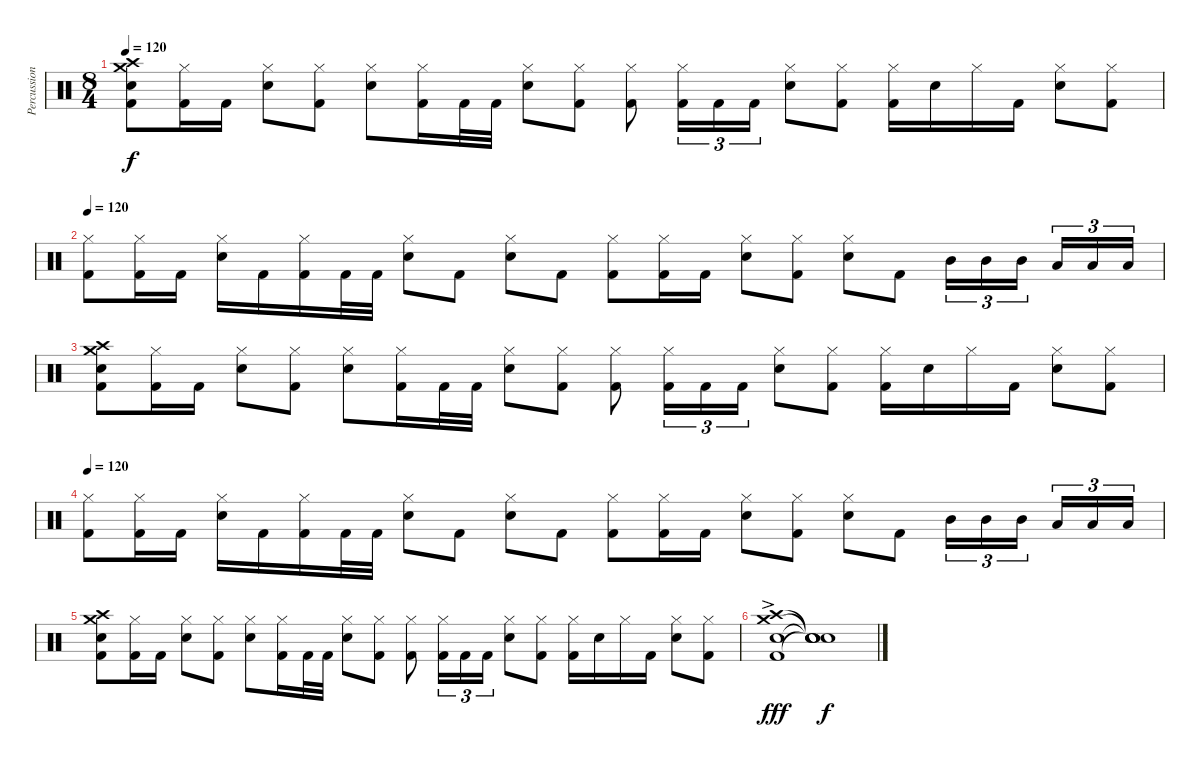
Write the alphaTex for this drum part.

\track ("Percussion" "Percussion") {instrument percussion}
\staff {score}
\articulation defaults
\ts (8 4)
\tempo 120
\clef neutral
\ks c
("Crash medium (hit)" "Crash high (hit)" "Snare (hit) 2" "Kick (hit) 2").8{dy f} ("Hi-Hat (closed)" "Kick (hit) 2").16 "Kick (hit) 2".16 ("Hi-Hat (closed)" "Snare (hit) 2").8 ("Hi-Hat (closed)" "Kick (hit) 2").8 ("Hi-Hat (closed)" "Snare (hit) 2").8 ("Hi-Hat (closed)" "Kick (hit) 2").16 "Kick (hit) 2".32 "Kick (hit) 2".32 ("Hi-Hat (closed)" "Snare (hit) 2").8 ("Hi-Hat (closed)" "Kick (hit) 2").8 ("Hi-Hat (closed)" "Kick (hit) 2").8 ("Hi-Hat (closed)" "Kick (hit) 2").16{tu (3 2)} "Kick (hit) 2".16{tu (3 2)} "Kick (hit) 2".16{tu (3 2)} ("Hi-Hat (closed)" "Snare (hit) 2").8 ("Hi-Hat (closed)" "Kick (hit) 2").8 ("Hi-Hat (closed)" "Kick (hit) 2").16 "Snare (hit) 2".16 "Hi-Hat (closed)".16 "Kick (hit) 2".16 ("Hi-Hat (closed)" "Snare (hit) 2").8 ("Hi-Hat (closed)" "Kick (hit) 2").8 |
\tempo 120
("Hi-Hat (closed)" "Kick (hit) 2").8{volume 13} ("Hi-Hat (closed)" "Kick (hit) 2").16 "Kick (hit) 2".16 ("Hi-Hat (closed)" "Snare (hit) 2").16 "Kick (hit) 2".16 ("Hi-Hat (closed)" "Kick (hit) 2").16 "Kick (hit) 2".32 "Kick (hit) 2".32 ("Hi-Hat (closed)" "Snare (hit) 2").8 "Kick (hit) 2".8 ("Hi-Hat (closed)" "Snare (hit) 2").8 "Kick (hit) 2".8 ("Hi-Hat (closed)" "Kick (hit) 2").8 ("Hi-Hat (closed)" "Kick (hit) 2").16 "Kick (hit) 2".16 ("Hi-Hat (closed)" "Snare (hit) 2").8 ("Hi-Hat (closed)" "Kick (hit) 2").8 ("Hi-Hat (closed)" "Snare (hit) 2").8 "Kick (hit) 2".8 "Mid Tom (hit)".16{tu (3 2)} "Mid Tom (hit)".16{tu (3 2)} "Mid Tom (hit)".16{tu (3 2)} "Low Tom (hit)".16{tu (3 2)} "Low Tom (hit)".16{tu (3 2)} "Low Tom (hit)".16{tu (3 2)} |
("Crash medium (hit)" "Crash high (hit)" "Snare (hit) 2" "Kick (hit) 2").8 ("Hi-Hat (closed)" "Kick (hit) 2").16 "Kick (hit) 2".16 ("Hi-Hat (closed)" "Snare (hit) 2").8 ("Hi-Hat (closed)" "Kick (hit) 2").8 ("Hi-Hat (closed)" "Snare (hit) 2").8 ("Hi-Hat (closed)" "Kick (hit) 2").16 "Kick (hit) 2".32 "Kick (hit) 2".32 ("Hi-Hat (closed)" "Snare (hit) 2").8 ("Hi-Hat (closed)" "Kick (hit) 2").8 ("Hi-Hat (closed)" "Kick (hit) 2").8 ("Hi-Hat (closed)" "Kick (hit) 2").16{tu (3 2)} "Kick (hit) 2".16{tu (3 2)} "Kick (hit) 2".16{tu (3 2)} ("Hi-Hat (closed)" "Snare (hit) 2").8 ("Hi-Hat (closed)" "Kick (hit) 2").8 ("Hi-Hat (closed)" "Kick (hit) 2").16 "Snare (hit) 2".16 "Hi-Hat (closed)".16 "Kick (hit) 2".16 ("Hi-Hat (closed)" "Snare (hit) 2").8 ("Hi-Hat (closed)" "Kick (hit) 2").8 |
\tempo 120
("Hi-Hat (closed)" "Kick (hit) 2").8{volume 13} ("Hi-Hat (closed)" "Kick (hit) 2").16 "Kick (hit) 2".16 ("Hi-Hat (closed)" "Snare (hit) 2").16 "Kick (hit) 2".16 ("Hi-Hat (closed)" "Kick (hit) 2").16 "Kick (hit) 2".32 "Kick (hit) 2".32 ("Hi-Hat (closed)" "Snare (hit) 2").8 "Kick (hit) 2".8 ("Hi-Hat (closed)" "Snare (hit) 2").8 "Kick (hit) 2".8 ("Hi-Hat (closed)" "Kick (hit) 2").8 ("Hi-Hat (closed)" "Kick (hit) 2").16 "Kick (hit) 2".16 ("Hi-Hat (closed)" "Snare (hit) 2").8 ("Hi-Hat (closed)" "Kick (hit) 2").8 ("Hi-Hat (closed)" "Snare (hit) 2").8 "Kick (hit) 2".8 "Mid Tom (hit)".16{tu (3 2)} "Mid Tom (hit)".16{tu (3 2)} "Mid Tom (hit)".16{tu (3 2)} "Low Tom (hit)".16{tu (3 2)} "Low Tom (hit)".16{tu (3 2)} "Low Tom (hit)".16{tu (3 2)} |
("Crash medium (hit)" "Crash high (hit)" "Snare (hit) 2" "Kick (hit) 2").8 ("Hi-Hat (closed)" "Kick (hit) 2").16 "Kick (hit) 2".16 ("Hi-Hat (closed)" "Snare (hit) 2").8 ("Hi-Hat (closed)" "Kick (hit) 2").8 ("Hi-Hat (closed)" "Snare (hit) 2").8 ("Hi-Hat (closed)" "Kick (hit) 2").16 "Kick (hit) 2".32 "Kick (hit) 2".32 ("Hi-Hat (closed)" "Snare (hit) 2").8 ("Hi-Hat (closed)" "Kick (hit) 2").8 ("Hi-Hat (closed)" "Kick (hit) 2").8 ("Hi-Hat (closed)" "Kick (hit) 2").16{tu (3 2)} "Kick (hit) 2".16{tu (3 2)} "Kick (hit) 2".16{tu (3 2)} ("Hi-Hat (closed)" "Snare (hit) 2").8 ("Hi-Hat (closed)" "Kick (hit) 2").8 ("Hi-Hat (closed)" "Kick (hit) 2").16 "Snare (hit) 2".16 "Hi-Hat (closed)".16 "Kick (hit) 2".16 ("Hi-Hat (closed)" "Snare (hit) 2").8 ("Hi-Hat (closed)" "Kick (hit) 2").8 |
("Crash medium (hit)"{ac} "Crash high (hit)"{ac} "Snare (hit) 2"{ac} "Kick (hit) 2"{ac}).1{dy fff volume 0} ("Snare (hit)"{t} "Snare (hit)"{t} "Snare (hit)"{t} "Snare (hit)"{t}).1{dy f}
